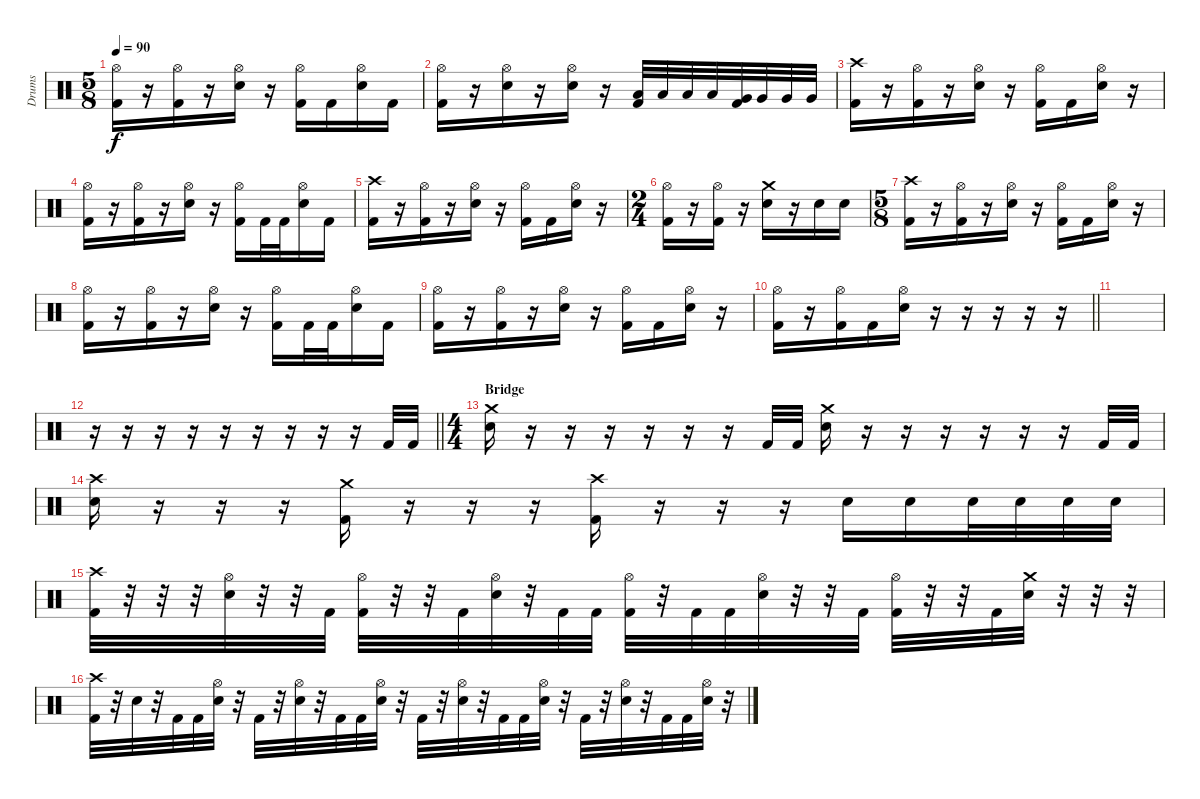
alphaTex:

\track ("Drums" "Drums") {instrument percussion}
\staff {score}
\articulation defaults
\ts (5 8)
\tempo 90
\clef neutral
\ks c
("Hi-Hat (open)" "Kick (hit) 2").16{dy f} r.16 ("Hi-Hat (open)" "Kick (hit) 2").16 r.16 ("Hi-Hat (open)" "Electric Snare (hit)").16 r.16 ("Hi-Hat (open)" "Kick (hit) 2").16 "Kick (hit) 2".16 ("Hi-Hat (open)" "Electric Snare (hit)").16 "Kick (hit) 2".16 |
("Hi-Hat (open)" "Kick (hit) 2").16 r.16 ("Hi-Hat (open)" "Electric Snare (hit)").16 r.16 ("Hi-Hat (open)" "Electric Snare (hit)").16 r.16 ("Low Tom (hit)" "Kick (hit) 2").32 "Low Tom (hit)".32 "Low Tom (hit)".32 "Low Tom (hit)".32 ("Very Low Tom (hit)" "Kick (hit) 2").32 "Very Low Tom (hit)".32 "Very Low Tom (hit)".32 "Very Low Tom (hit)".32 |
("Crash high (hit)" "Kick (hit) 2").16 r.16 ("Hi-Hat (open)" "Kick (hit) 2").16 r.16 ("Hi-Hat (open)" "Electric Snare (hit)").16 r.16 ("Hi-Hat (open)" "Kick (hit) 2").16 "Kick (hit) 2".16 ("Hi-Hat (open)" "Electric Snare (hit)").16 r.16 |
("Hi-Hat (open)" "Kick (hit) 2").16 r.16 ("Hi-Hat (open)" "Kick (hit) 2").16 r.16 ("Hi-Hat (open)" "Electric Snare (hit)").16 r.16 ("Hi-Hat (open)" "Kick (hit) 2").16 "Kick (hit) 2".32 "Kick (hit) 2".32 ("Hi-Hat (open)" "Electric Snare (hit)").16 "Kick (hit) 2".16 |
("Crash high (hit)" "Kick (hit) 2").16 r.16 ("Hi-Hat (open)" "Kick (hit) 2").16 r.16 ("Hi-Hat (open)" "Electric Snare (hit)").16 r.16 ("Hi-Hat (open)" "Kick (hit) 2").16 "Kick (hit) 2".16 ("Hi-Hat (open)" "Electric Snare (hit)").16 r.16 |
\ts (2 4)
("Hi-Hat (open)" "Kick (hit) 2").16 r.16 ("Hi-Hat (open)" "Kick (hit) 2").16 r.16 ("Crash medium (hit)" "Electric Snare (hit)").16 r.16 "Electric Snare (hit)".16 "Electric Snare (hit)".16 |
\ts (5 8)
("Crash high (hit)" "Kick (hit) 2").16 r.16 ("Hi-Hat (open)" "Kick (hit) 2").16 r.16 ("Hi-Hat (open)" "Electric Snare (hit)").16 r.16 ("Hi-Hat (open)" "Kick (hit) 2").16 "Kick (hit) 2".16 ("Hi-Hat (open)" "Electric Snare (hit)").16 r.16 |
("Hi-Hat (open)" "Kick (hit) 2").16 r.16 ("Hi-Hat (open)" "Kick (hit) 2").16 r.16 ("Hi-Hat (open)" "Electric Snare (hit)").16 r.16 ("Hi-Hat (open)" "Kick (hit) 2").16 "Kick (hit) 2".32 "Kick (hit) 2".32 ("Hi-Hat (open)" "Electric Snare (hit)").16 "Kick (hit) 2".16 |
("Hi-Hat (open)" "Kick (hit) 2").16 r.16 ("Hi-Hat (open)" "Kick (hit) 2").16 r.16 ("Hi-Hat (open)" "Electric Snare (hit)").16 r.16 ("Hi-Hat (open)" "Kick (hit) 2").16 "Kick (hit) 2".16 ("Hi-Hat (open)" "Electric Snare (hit)").16 r.16 |
\barLineRight lightlight
("Hi-Hat (open)" "Kick (hit) 2").16 r.16 ("Hi-Hat (open)" "Kick (hit) 2").16 "Kick (hit) 2".16 ("Hi-Hat (open)" "Electric Snare (hit)").16 r.16 r.16 r.16 r.16 r.16 |
|
\barLineRight lightlight
r.16 r.16 r.16 r.16 r.16 r.16 r.16 r.16 r.16 "Kick (hit) 2".32 "Kick (hit) 2".32 |
\ts (4 4)
\section ("" "Bridge")
("Crash medium (hit)" "Electric Snare (hit)").16 r.16 r.16 r.16 r.16 r.16 r.16 "Kick (hit) 2".32 "Kick (hit) 2".32 ("Crash medium (hit)" "Electric Snare (hit)").16 r.16 r.16 r.16 r.16 r.16 r.16 "Kick (hit) 2".32 "Kick (hit) 2".32 |
("Crash high (hit)" "Electric Snare (hit)").16 r.16 r.16 r.16 ("Crash medium (hit)" "Kick (hit) 2").16 r.16 r.16 r.16 ("Crash high (hit)" "Kick (hit) 2").16 r.16 r.16 r.16 "Electric Snare (hit)".16 "Electric Snare (hit)".16 "Electric Snare (hit)".32 "Electric Snare (hit)".32 "Electric Snare (hit)".32 "Electric Snare (hit)".32 |
("Crash high (hit)" "Kick (hit) 2").32 r.32 r.32 r.32 ("Hi-Hat (open)" "Electric Snare (hit)").32 r.32 r.32 "Kick (hit) 2".32 ("Hi-Hat (open)" "Kick (hit) 2").32 r.32 r.32 "Kick (hit) 2".32 ("Hi-Hat (open)" "Electric Snare (hit)").32 r.32 "Kick (hit) 2".32 "Kick (hit) 2".32 ("Hi-Hat (open)" "Kick (hit) 2").32 r.32 "Kick (hit) 2".32 "Kick (hit) 2".32 ("Hi-Hat (open)" "Electric Snare (hit)").32 r.32 r.32 "Kick (hit) 2".32 ("Hi-Hat (open)" "Kick (hit) 2").32 r.32 r.32 "Kick (hit) 2".32 ("Crash medium (hit)" "Electric Snare (hit)").32 r.32 r.32 r.32 |
("Crash high (hit)" "Kick (hit) 2").32 r.32 "Electric Snare (hit)".32 r.32 "Kick (hit) 2".32 "Kick (hit) 2".32 ("Hi-Hat (open)" "Electric Snare (hit)").32 r.32 "Kick (hit) 2".32 r.32 ("Hi-Hat (open)" "Electric Snare (hit)").32 r.32 "Kick (hit) 2".32 "Kick (hit) 2".32 ("Hi-Hat (open)" "Electric Snare (hit)").32 r.32 "Kick (hit) 2".32 r.32 ("Hi-Hat (open)" "Electric Snare (hit)").32 r.32 "Kick (hit) 2".32 "Kick (hit) 2".32 ("Hi-Hat (open)" "Electric Snare (hit)").32 r.32 "Kick (hit) 2".32 r.32 ("Hi-Hat (open)" "Electric Snare (hit)").32 r.32 "Kick (hit) 2".32 "Kick (hit) 2".32 ("Hi-Hat (open)" "Electric Snare (hit)").32 r.32
